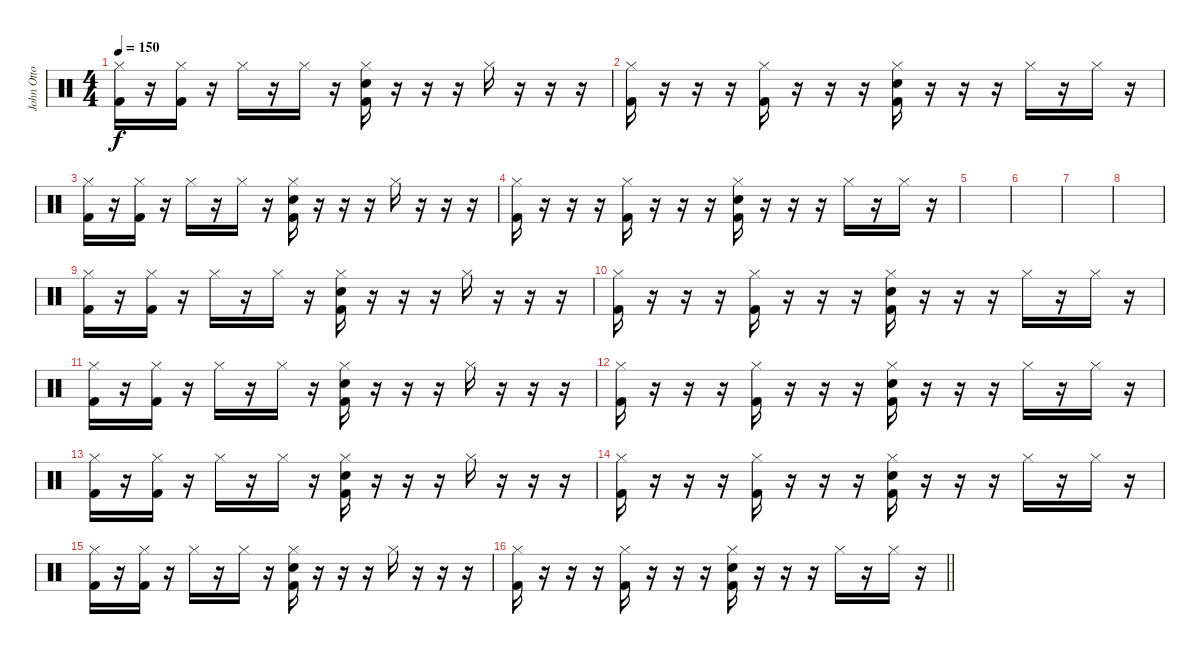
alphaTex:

\track ("John Otto" "John Otto") {instrument percussion}
\staff {score}
\articulation defaults
\ts (4 4)
\tempo 150
\clef neutral
\ks c
("Hi-Hat (closed)" "Kick (hit) 2").16{dy f} r.16 ("Hi-Hat (closed)" "Kick (hit) 2").16 r.16 "Hi-Hat (closed)".16 r.16 "Hi-Hat (closed)".16 r.16 ("Hi-Hat (closed)" "Snare (hit) 2" "Kick (hit) 2").16 r.16 r.16 r.16 "Hi-Hat (closed)".16 r.16 r.16 r.16 |
("Hi-Hat (closed)" "Kick (hit) 2").16 r.16 r.16 r.16 ("Hi-Hat (closed)" "Kick (hit) 2").16 r.16 r.16 r.16 ("Hi-Hat (closed)" "Snare (hit) 2" "Kick (hit) 2").16 r.16 r.16 r.16 "Hi-Hat (closed)".16 r.16 "Hi-Hat (closed)".16 r.16 |
("Hi-Hat (closed)" "Kick (hit) 2").16 r.16 ("Hi-Hat (closed)" "Kick (hit) 2").16 r.16 "Hi-Hat (closed)".16 r.16 "Hi-Hat (closed)".16 r.16 ("Hi-Hat (closed)" "Snare (hit) 2" "Kick (hit) 2").16 r.16 r.16 r.16 "Hi-Hat (closed)".16 r.16 r.16 r.16 |
("Hi-Hat (closed)" "Kick (hit) 2").16 r.16 r.16 r.16 ("Hi-Hat (closed)" "Kick (hit) 2").16 r.16 r.16 r.16 ("Hi-Hat (closed)" "Snare (hit) 2" "Kick (hit) 2").16 r.16 r.16 r.16 "Hi-Hat (closed)".16 r.16 "Hi-Hat (closed)".16 r.16 |
|
|
|
|
("Hi-Hat (closed)" "Kick (hit) 2").16 r.16 ("Hi-Hat (closed)" "Kick (hit) 2").16 r.16 "Hi-Hat (closed)".16 r.16 "Hi-Hat (closed)".16 r.16 ("Hi-Hat (closed)" "Snare (hit) 2" "Kick (hit) 2").16 r.16 r.16 r.16 "Hi-Hat (closed)".16 r.16 r.16 r.16 |
("Hi-Hat (closed)" "Kick (hit) 2").16 r.16 r.16 r.16 ("Hi-Hat (closed)" "Kick (hit) 2").16 r.16 r.16 r.16 ("Hi-Hat (closed)" "Snare (hit) 2" "Kick (hit) 2").16 r.16 r.16 r.16 "Hi-Hat (closed)".16 r.16 "Hi-Hat (closed)".16 r.16 |
("Hi-Hat (closed)" "Kick (hit) 2").16 r.16 ("Hi-Hat (closed)" "Kick (hit) 2").16 r.16 "Hi-Hat (closed)".16 r.16 "Hi-Hat (closed)".16 r.16 ("Hi-Hat (closed)" "Snare (hit) 2" "Kick (hit) 2").16 r.16 r.16 r.16 "Hi-Hat (closed)".16 r.16 r.16 r.16 |
("Hi-Hat (closed)" "Kick (hit) 2").16 r.16 r.16 r.16 ("Hi-Hat (closed)" "Kick (hit) 2").16 r.16 r.16 r.16 ("Hi-Hat (closed)" "Snare (hit) 2" "Kick (hit) 2").16 r.16 r.16 r.16 "Hi-Hat (closed)".16 r.16 "Hi-Hat (closed)".16 r.16 |
("Hi-Hat (closed)" "Kick (hit) 2").16 r.16 ("Hi-Hat (closed)" "Kick (hit) 2").16 r.16 "Hi-Hat (closed)".16 r.16 "Hi-Hat (closed)".16 r.16 ("Hi-Hat (closed)" "Snare (hit) 2" "Kick (hit) 2").16 r.16 r.16 r.16 "Hi-Hat (closed)".16 r.16 r.16 r.16 |
("Hi-Hat (closed)" "Kick (hit) 2").16 r.16 r.16 r.16 ("Hi-Hat (closed)" "Kick (hit) 2").16 r.16 r.16 r.16 ("Hi-Hat (closed)" "Snare (hit) 2" "Kick (hit) 2").16 r.16 r.16 r.16 "Hi-Hat (closed)".16 r.16 "Hi-Hat (closed)".16 r.16 |
("Hi-Hat (closed)" "Kick (hit) 2").16 r.16 ("Hi-Hat (closed)" "Kick (hit) 2").16 r.16 "Hi-Hat (closed)".16 r.16 "Hi-Hat (closed)".16 r.16 ("Hi-Hat (closed)" "Snare (hit) 2" "Kick (hit) 2").16 r.16 r.16 r.16 "Hi-Hat (closed)".16 r.16 r.16 r.16 |
\barLineRight lightlight
("Hi-Hat (closed)" "Kick (hit) 2").16 r.16 r.16 r.16 ("Hi-Hat (closed)" "Kick (hit) 2").16 r.16 r.16 r.16 ("Hi-Hat (closed)" "Snare (hit) 2" "Kick (hit) 2").16 r.16 r.16 r.16 "Hi-Hat (closed)".16 r.16 "Hi-Hat (closed)".16 r.16
